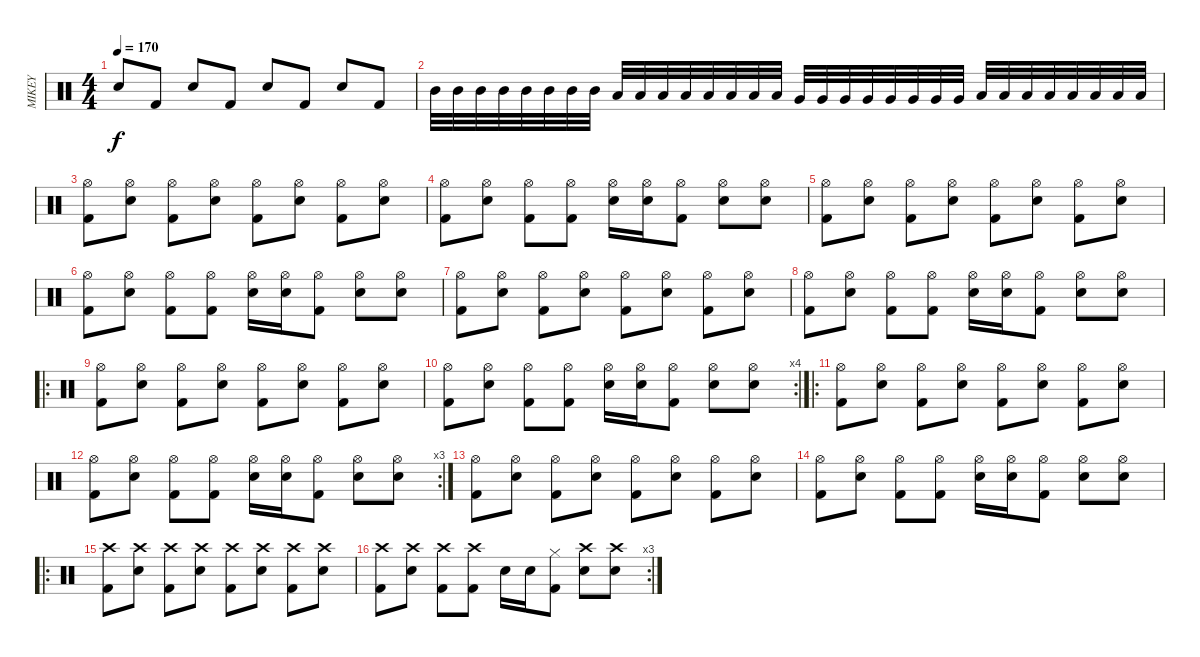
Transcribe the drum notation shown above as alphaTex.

\track ("MIKEY" "MIKEY") {instrument percussion}
\staff {score}
\articulation defaults
\ts (4 4)
\tempo 170
\clef neutral
\ks c "Electric Snare (hit)".8{dy f} "Kick (hit) 2".8 "Electric Snare (hit)".8 "Kick (hit) 2".8 "Electric Snare (hit)".8 "Kick (hit) 2".8 "Electric Snare (hit)".8 "Kick (hit) 2".8
|
"Mid Tom (hit)".32 "Mid Tom (hit)".32 "Mid Tom (hit)".32 "Mid Tom (hit)".32 "Mid Tom (hit)".32 "Mid Tom (hit)".32 "Mid Tom (hit)".32 "Mid Tom (hit)".32 "Low Tom (hit)".32 "Low Tom (hit)".32 "Low Tom (hit)".32 "Low Tom (hit)".32 "Low Tom (hit)".32 "Low Tom (hit)".32 "Low Tom (hit)".32 "Low Tom (hit)".32 "Very Low Tom (hit)".32 "Very Low Tom (hit)".32 "Very Low Tom (hit)".32 "Very Low Tom (hit)".32 "Very Low Tom (hit)".32 "Very Low Tom (hit)".32 "Very Low Tom (hit)".32 "Very Low Tom (hit)".32 "Low Floor Tom (hit)".32 "Low Floor Tom (hit)".32 "Low Floor Tom (hit)".32 "Low Floor Tom (hit)".32 "Low Floor Tom (hit)".32 "Low Floor Tom (hit)".32 "Low Floor Tom (hit)".32 "Low Floor Tom (hit)".32 |
("Hi-Hat (open)" "Kick (hit) 2").8 ("Hi-Hat (open)" "Electric Snare (hit)").8 ("Hi-Hat (open)" "Kick (hit) 2").8 ("Hi-Hat (open)" "Electric Snare (hit)").8 ("Hi-Hat (open)" "Kick (hit) 2").8 ("Hi-Hat (open)" "Electric Snare (hit)").8 ("Hi-Hat (open)" "Kick (hit) 2").8 ("Hi-Hat (open)" "Electric Snare (hit)").8 |
("Hi-Hat (open)" "Kick (hit) 2").8 ("Hi-Hat (open)" "Electric Snare (hit)").8 ("Hi-Hat (open)" "Kick (hit) 2").8 ("Hi-Hat (open)" "Kick (hit) 2").8 ("Hi-Hat (open)" "Electric Snare (hit)").16 ("Hi-Hat (open)" "Electric Snare (hit)").16 ("Hi-Hat (open)" "Kick (hit) 2").8 ("Hi-Hat (open)" "Electric Snare (hit)").8 ("Hi-Hat (open)" "Electric Snare (hit)").8 |
("Hi-Hat (open)" "Kick (hit) 2").8 ("Hi-Hat (open)" "Electric Snare (hit)").8 ("Hi-Hat (open)" "Kick (hit) 2").8 ("Hi-Hat (open)" "Electric Snare (hit)").8 ("Hi-Hat (open)" "Kick (hit) 2").8 ("Hi-Hat (open)" "Electric Snare (hit)").8 ("Hi-Hat (open)" "Kick (hit) 2").8 ("Hi-Hat (open)" "Electric Snare (hit)").8 |
("Hi-Hat (open)" "Kick (hit) 2").8 ("Hi-Hat (open)" "Electric Snare (hit)").8 ("Hi-Hat (open)" "Kick (hit) 2").8 ("Hi-Hat (open)" "Kick (hit) 2").8 ("Hi-Hat (open)" "Electric Snare (hit)").16 ("Hi-Hat (open)" "Electric Snare (hit)").16 ("Hi-Hat (open)" "Kick (hit) 2").8 ("Hi-Hat (open)" "Electric Snare (hit)").8 ("Hi-Hat (open)" "Electric Snare (hit)").8 |
("Hi-Hat (open)" "Kick (hit) 2").8 ("Hi-Hat (open)" "Electric Snare (hit)").8 ("Hi-Hat (open)" "Kick (hit) 2").8 ("Hi-Hat (open)" "Electric Snare (hit)").8 ("Hi-Hat (open)" "Kick (hit) 2").8 ("Hi-Hat (open)" "Electric Snare (hit)").8 ("Hi-Hat (open)" "Kick (hit) 2").8 ("Hi-Hat (open)" "Electric Snare (hit)").8 |
("Hi-Hat (open)" "Kick (hit) 2").8 ("Hi-Hat (open)" "Electric Snare (hit)").8 ("Hi-Hat (open)" "Kick (hit) 2").8 ("Hi-Hat (open)" "Kick (hit) 2").8 ("Hi-Hat (open)" "Electric Snare (hit)").16 ("Hi-Hat (open)" "Electric Snare (hit)").16 ("Hi-Hat (open)" "Kick (hit) 2").8 ("Hi-Hat (open)" "Electric Snare (hit)").8 ("Hi-Hat (open)" "Electric Snare (hit)").8 |
\ro
("Hi-Hat (open)" "Kick (hit) 2").8 ("Hi-Hat (open)" "Electric Snare (hit)").8 ("Hi-Hat (open)" "Kick (hit) 2").8 ("Hi-Hat (open)" "Electric Snare (hit)").8 ("Hi-Hat (open)" "Kick (hit) 2").8 ("Hi-Hat (open)" "Electric Snare (hit)").8 ("Hi-Hat (open)" "Kick (hit) 2").8 ("Hi-Hat (open)" "Electric Snare (hit)").8 |
\rc 4
("Hi-Hat (open)" "Kick (hit) 2").8 ("Hi-Hat (open)" "Electric Snare (hit)").8 ("Hi-Hat (open)" "Kick (hit) 2").8 ("Hi-Hat (open)" "Kick (hit) 2").8 ("Hi-Hat (open)" "Electric Snare (hit)").16 ("Hi-Hat (open)" "Electric Snare (hit)").16 ("Hi-Hat (open)" "Kick (hit) 2").8 ("Hi-Hat (open)" "Electric Snare (hit)").8 ("Hi-Hat (open)" "Electric Snare (hit)").8 |
\ro
("Hi-Hat (open)" "Kick (hit) 2").8 ("Hi-Hat (open)" "Electric Snare (hit)").8 ("Hi-Hat (open)" "Kick (hit) 2").8 ("Hi-Hat (open)" "Electric Snare (hit)").8 ("Hi-Hat (open)" "Kick (hit) 2").8 ("Hi-Hat (open)" "Electric Snare (hit)").8 ("Hi-Hat (open)" "Kick (hit) 2").8 ("Hi-Hat (open)" "Electric Snare (hit)").8 |
\rc 3
("Hi-Hat (open)" "Kick (hit) 2").8 ("Hi-Hat (open)" "Electric Snare (hit)").8 ("Hi-Hat (open)" "Kick (hit) 2").8 ("Hi-Hat (open)" "Kick (hit) 2").8 ("Hi-Hat (open)" "Electric Snare (hit)").16 ("Hi-Hat (open)" "Electric Snare (hit)").16 ("Hi-Hat (open)" "Kick (hit) 2").8 ("Hi-Hat (open)" "Electric Snare (hit)").8 ("Hi-Hat (open)" "Electric Snare (hit)").8 |
("Hi-Hat (open)" "Kick (hit) 2").8 ("Hi-Hat (open)" "Electric Snare (hit)").8 ("Hi-Hat (open)" "Kick (hit) 2").8 ("Hi-Hat (open)" "Electric Snare (hit)").8 ("Hi-Hat (open)" "Kick (hit) 2").8 ("Hi-Hat (open)" "Electric Snare (hit)").8 ("Hi-Hat (open)" "Kick (hit) 2").8 ("Hi-Hat (open)" "Electric Snare (hit)").8 |
("Hi-Hat (open)" "Kick (hit) 2").8 ("Hi-Hat (open)" "Electric Snare (hit)").8 ("Hi-Hat (open)" "Kick (hit) 2").8 ("Hi-Hat (open)" "Kick (hit) 2").8 ("Hi-Hat (open)" "Electric Snare (hit)").16 ("Hi-Hat (open)" "Electric Snare (hit)").16 ("Hi-Hat (open)" "Kick (hit) 2").8 ("Hi-Hat (open)" "Electric Snare (hit)").8 ("Hi-Hat (open)" "Electric Snare (hit)").8 |
\ro
("Crash high (hit)" "Kick (hit) 2").8 ("Crash high (hit)" "Electric Snare (hit)").8 ("Crash high (hit)" "Kick (hit) 2").8 ("Crash high (hit)" "Electric Snare (hit)").8 ("Crash high (hit)" "Kick (hit) 2").8 ("Crash high (hit)" "Electric Snare (hit)").8 ("Crash high (hit)" "Kick (hit) 2").8 ("Crash high (hit)" "Electric Snare (hit)").8 |
\rc 3
("Crash high (hit)" "Kick (hit) 2").8 ("Crash high (hit)" "Electric Snare (hit)").8 ("Crash high (hit)" "Kick (hit) 2").8 ("Crash high (hit)" "Kick (hit) 2").8 "Electric Snare (hit)".16 "Electric Snare (hit)".16 ("Hi-Hat (closed)" "Kick (hit) 2").8 ("Crash high (hit)" "Electric Snare (hit)").8 ("Crash high (hit)" "Electric Snare (hit)").8
